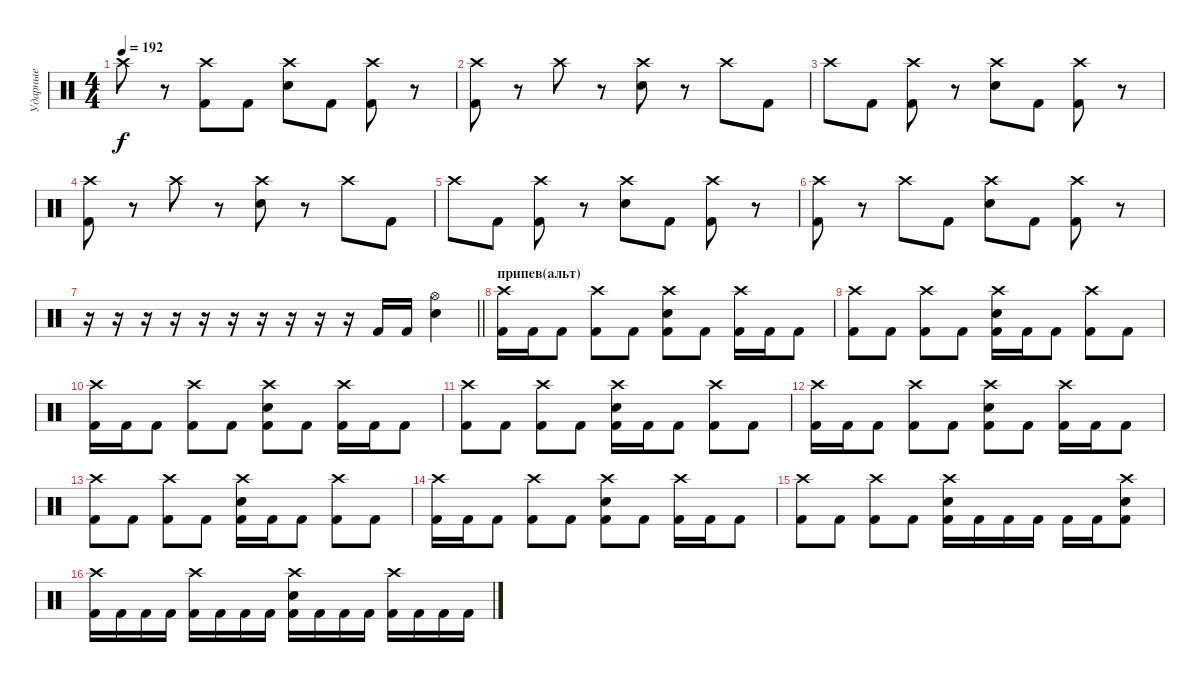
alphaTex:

\track ("Ударные" "Ударные") {instrument percussion}
\staff {score}
\articulation defaults
\ts (4 4)
\tempo 192
\clef neutral
\ks c "Crash high (hit)".8{dy f}
r.8 ("Crash high (hit)" "Kick (hit) 2").8 "Kick (hit) 2".8 ("Crash high (hit)" "Electric Snare (hit)").8 "Kick (hit) 2".8 ("Crash high (hit)" "Kick (hit) 2").8 r.8 |
("Crash high (hit)" "Kick (hit) 2").8 r.8 "Crash high (hit)".8 r.8 ("Crash high (hit)" "Electric Snare (hit)").8 r.8 "Crash high (hit)".8 "Kick (hit) 2".8 |
"Crash high (hit)".8 "Kick (hit) 2".8 ("Crash high (hit)" "Kick (hit) 2").8 r.8 ("Crash high (hit)" "Electric Snare (hit)").8 "Kick (hit) 2".8 ("Crash high (hit)" "Kick (hit) 2").8 r.8 |
("Crash high (hit)" "Kick (hit) 2").8 r.8 "Crash high (hit)".8 r.8 ("Crash high (hit)" "Electric Snare (hit)").8 r.8 "Crash high (hit)".8 "Kick (hit) 2".8 |
"Crash high (hit)".8 "Kick (hit) 2".8 ("Crash high (hit)" "Kick (hit) 2").8 r.8 ("Crash high (hit)" "Electric Snare (hit)").8 "Kick (hit) 2".8 ("Crash high (hit)" "Kick (hit) 2").8 r.8 |
("Crash high (hit)" "Kick (hit) 2").8 r.8 "Crash high (hit)".8 "Kick (hit) 2".8 ("Crash high (hit)" "Electric Snare (hit)").8 "Kick (hit) 2".8 ("Crash high (hit)" "Kick (hit) 2").8 r.8 |
\barLineRight lightlight
r.16 r.16 r.16 r.16 r.16 r.16 r.16 r.16 r.16 r.16 "Kick (hit) 2".16 "Kick (hit) 2".16 ("Hi-Hat (open)" "Electric Snare (hit)").4 |
\section ("" "припев(альт)")
("Crash high (hit)" "Kick (hit) 2").16 "Kick (hit) 2".16 "Kick (hit) 2".8 ("Crash high (hit)" "Kick (hit) 2").8 "Kick (hit) 2".8 ("Crash high (hit)" "Electric Snare (hit)" "Kick (hit) 2").8 "Kick (hit) 2".8 ("Crash high (hit)" "Kick (hit) 2").16 "Kick (hit) 2".16 "Kick (hit) 2".8 |
("Crash high (hit)" "Kick (hit) 2").8 "Kick (hit) 2".8 ("Crash high (hit)" "Kick (hit) 2").8 "Kick (hit) 2".8 ("Crash high (hit)" "Electric Snare (hit)" "Kick (hit) 2").16 "Kick (hit) 2".16 "Kick (hit) 2".8 ("Crash high (hit)" "Kick (hit) 2").8 "Kick (hit) 2".8 |
("Crash high (hit)" "Kick (hit) 2").16 "Kick (hit) 2".16 "Kick (hit) 2".8 ("Crash high (hit)" "Kick (hit) 2").8 "Kick (hit) 2".8 ("Crash high (hit)" "Electric Snare (hit)" "Kick (hit) 2").8 "Kick (hit) 2".8 ("Crash high (hit)" "Kick (hit) 2").16 "Kick (hit) 2".16 "Kick (hit) 2".8 |
("Crash high (hit)" "Kick (hit) 2").8 "Kick (hit) 2".8 ("Crash high (hit)" "Kick (hit) 2").8 "Kick (hit) 2".8 ("Crash high (hit)" "Electric Snare (hit)" "Kick (hit) 2").16 "Kick (hit) 2".16 "Kick (hit) 2".8 ("Crash high (hit)" "Kick (hit) 2").8 "Kick (hit) 2".8 |
("Crash high (hit)" "Kick (hit) 2").16 "Kick (hit) 2".16 "Kick (hit) 2".8 ("Crash high (hit)" "Kick (hit) 2").8 "Kick (hit) 2".8 ("Crash high (hit)" "Electric Snare (hit)" "Kick (hit) 2").8 "Kick (hit) 2".8 ("Crash high (hit)" "Kick (hit) 2").16 "Kick (hit) 2".16 "Kick (hit) 2".8 |
("Crash high (hit)" "Kick (hit) 2").8 "Kick (hit) 2".8 ("Crash high (hit)" "Kick (hit) 2").8 "Kick (hit) 2".8 ("Crash high (hit)" "Electric Snare (hit)" "Kick (hit) 2").16 "Kick (hit) 2".16 "Kick (hit) 2".8 ("Crash high (hit)" "Kick (hit) 2").8 "Kick (hit) 2".8 |
("Crash high (hit)" "Kick (hit) 2").16 "Kick (hit) 2".16 "Kick (hit) 2".8 ("Crash high (hit)" "Kick (hit) 2").8 "Kick (hit) 2".8 ("Crash high (hit)" "Electric Snare (hit)" "Kick (hit) 2").8 "Kick (hit) 2".8 ("Crash high (hit)" "Kick (hit) 2").16 "Kick (hit) 2".16 "Kick (hit) 2".8 |
("Crash high (hit)" "Kick (hit) 2").8 "Kick (hit) 2".8 ("Crash high (hit)" "Kick (hit) 2").8 "Kick (hit) 2".8 ("Crash high (hit)" "Electric Snare (hit)" "Kick (hit) 2").16 "Kick (hit) 2".16 "Kick (hit) 2".16 "Kick (hit) 2".16 "Kick (hit) 2".16 "Kick (hit) 2".16 ("Crash high (hit)" "Electric Snare (hit)" "Kick (hit) 2").8 |
("Crash high (hit)" "Kick (hit) 2").16 "Kick (hit) 2".16 "Kick (hit) 2".16 "Kick (hit) 2".16 ("Crash high (hit)" "Kick (hit) 2").16 "Kick (hit) 2".16 "Kick (hit) 2".16 "Kick (hit) 2".16 ("Crash high (hit)" "Electric Snare (hit)" "Kick (hit) 2").16 "Kick (hit) 2".16 "Kick (hit) 2".16 "Kick (hit) 2".16 ("Crash high (hit)" "Kick (hit) 2").16 "Kick (hit) 2".16 "Kick (hit) 2".16 "Kick (hit) 2".16
